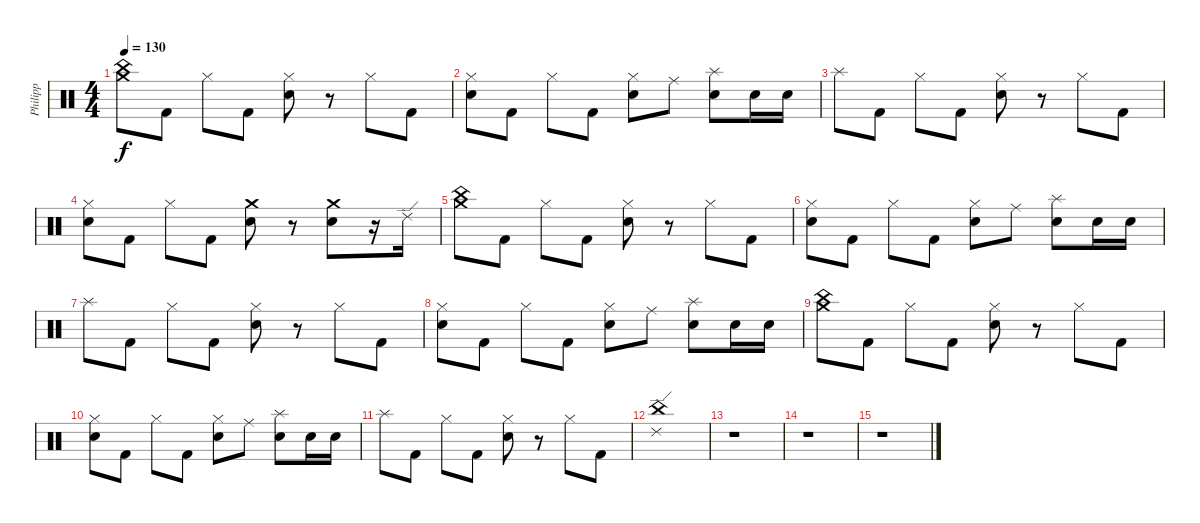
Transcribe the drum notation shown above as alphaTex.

\track ("Philipp" "Philipp") {instrument percussion}
\staff {score}
\articulation defaults
\ts (4 4)
\tempo 130
\clef neutral
\ks c
("China (hit)" "Crash medium (hit)").8{dy f} "Kick (hit) 2".8 "Hi-Hat (closed)".8 "Kick (hit) 2".8 ("Hi-Hat (closed)" "Electric Snare (hit)").8 r.8 "Hi-Hat (closed)".8 "Kick (hit) 2".8 |
("Hi-Hat (closed)" "Electric Snare (hit)").8 "Kick (hit) 2".8 "Hi-Hat (closed)".8 "Kick (hit) 2".8 ("Hi-Hat (closed)" "Electric Snare (hit)").8 "Ride (middle)".8 ("Splash (hit)" "Electric Snare (hit)").8 "Electric Snare (hit)".16 "Electric Snare (hit)".16 |
"Splash (hit)".8 "Kick (hit) 2".8 "Hi-Hat (closed)".8 "Kick (hit) 2".8 ("Hi-Hat (closed)" "Electric Snare (hit)").8 r.8 "Hi-Hat (closed)".8 "Kick (hit) 2".8 |
("Hi-Hat (closed)" "Electric Snare (hit)").8 "Kick (hit) 2".8 "Hi-Hat (closed)".8 "Kick (hit) 2".8 ("Crash medium (hit)" "Electric Snare (hit)").8 r.8 ("Crash medium (hit)" "Electric Snare (hit)").8 r.16 "Ride (edge) 2".16 |
("China (hit)" "Crash medium (hit)").8 "Kick (hit) 2".8 "Hi-Hat (closed)".8 "Kick (hit) 2".8 ("Hi-Hat (closed)" "Electric Snare (hit)").8 r.8 "Hi-Hat (closed)".8 "Kick (hit) 2".8 |
("Hi-Hat (closed)" "Electric Snare (hit)").8 "Kick (hit) 2".8 "Hi-Hat (closed)".8 "Kick (hit) 2".8 ("Hi-Hat (closed)" "Electric Snare (hit)").8 "Ride (middle)".8 ("Splash (hit)" "Electric Snare (hit)").8 "Electric Snare (hit)".16 "Electric Snare (hit)".16 |
"Splash (hit)".8 "Kick (hit) 2".8 "Hi-Hat (closed)".8 "Kick (hit) 2".8 ("Hi-Hat (closed)" "Electric Snare (hit)").8 r.8 "Hi-Hat (closed)".8 "Kick (hit) 2".8 |
("Hi-Hat (closed)" "Electric Snare (hit)").8 "Kick (hit) 2".8 "Hi-Hat (closed)".8 "Kick (hit) 2".8 ("Hi-Hat (closed)" "Electric Snare (hit)").8 "Ride (middle)".8 ("Splash (hit)" "Electric Snare (hit)").8 "Electric Snare (hit)".16 "Electric Snare (hit)".16 |
("China (hit)" "Crash medium (hit)").8 "Kick (hit) 2".8 "Hi-Hat (closed)".8 "Kick (hit) 2".8 ("Hi-Hat (closed)" "Electric Snare (hit)").8 r.8 "Hi-Hat (closed)".8 "Kick (hit) 2".8 |
("Hi-Hat (closed)" "Electric Snare (hit)").8 "Kick (hit) 2".8 "Hi-Hat (closed)".8 "Kick (hit) 2".8 ("Hi-Hat (closed)" "Electric Snare (hit)").8 "Ride (middle)".8 ("Splash (hit)" "Electric Snare (hit)").8 "Electric Snare (hit)".16 "Electric Snare (hit)".16 |
"Splash (hit)".8 "Kick (hit) 2".8 "Hi-Hat (closed)".8 "Kick (hit) 2".8 ("Hi-Hat (closed)" "Electric Snare (hit)").8 r.8 "Hi-Hat (closed)".8 "Kick (hit) 2".8 |
("China (hit)" "Ride (edge) 2").1{volume 5} |
r.1 |
r.1 |
r.1
